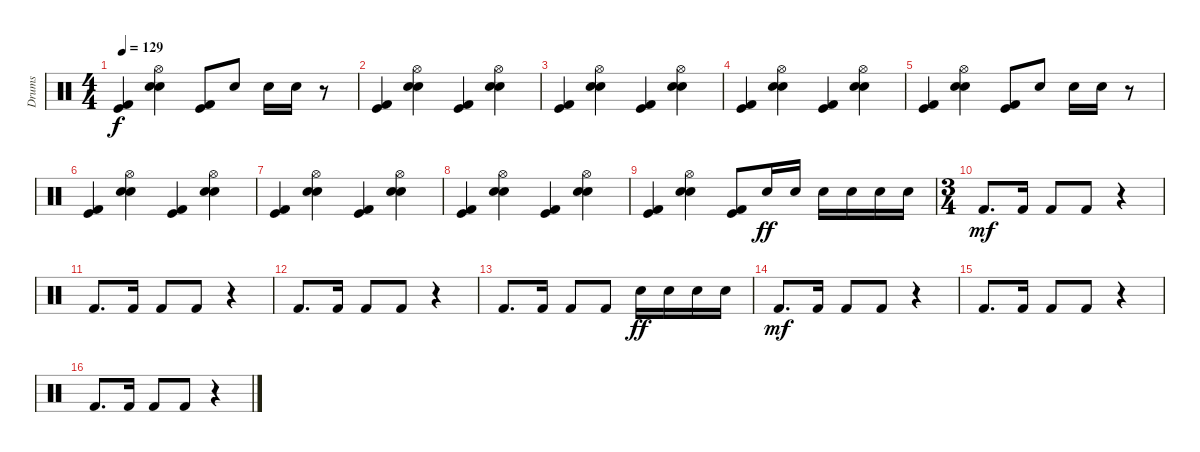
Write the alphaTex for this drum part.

\track ("Drums" "Drums") {instrument percussion}
\staff {score}
\articulation defaults
\ts (4 4)
\tempo 129
\clef neutral
\ks c
("Kick (hit)" "Kick (hit) 2").4{dy f} ("Electric Snare (hit)" "Hi-Hat (open)" "Snare (hit) 2").4 ("Kick (hit)" "Kick (hit) 2").8 "Snare (hit) 2".8 "Snare (hit) 2".16 "Snare (hit) 2".16 r.8 |
("Kick (hit)" "Kick (hit) 2").4 ("Electric Snare (hit)" "Hi-Hat (open)" "Snare (hit) 2").4 ("Kick (hit)" "Kick (hit) 2").4 ("Electric Snare (hit)" "Hi-Hat (open)" "Snare (hit) 2").4 |
("Kick (hit)" "Kick (hit) 2").4 ("Electric Snare (hit)" "Hi-Hat (open)" "Snare (hit) 2").4 ("Kick (hit)" "Kick (hit) 2").4 ("Electric Snare (hit)" "Hi-Hat (open)" "Snare (hit) 2").4 |
("Kick (hit)" "Kick (hit) 2").4 ("Electric Snare (hit)" "Hi-Hat (open)" "Snare (hit) 2").4 ("Kick (hit)" "Kick (hit) 2").4 ("Electric Snare (hit)" "Hi-Hat (open)" "Snare (hit) 2").4 |
("Kick (hit)" "Kick (hit) 2").4 ("Electric Snare (hit)" "Hi-Hat (open)" "Snare (hit) 2").4 ("Kick (hit)" "Kick (hit) 2").8 "Snare (hit) 2".8 "Snare (hit) 2".16 "Snare (hit) 2".16 r.8 |
("Kick (hit)" "Kick (hit) 2").4 ("Electric Snare (hit)" "Hi-Hat (open)" "Snare (hit) 2").4 ("Kick (hit)" "Kick (hit) 2").4 ("Electric Snare (hit)" "Hi-Hat (open)" "Snare (hit) 2").4 |
("Kick (hit)" "Kick (hit) 2").4 ("Electric Snare (hit)" "Hi-Hat (open)" "Snare (hit) 2").4 ("Kick (hit)" "Kick (hit) 2").4 ("Electric Snare (hit)" "Hi-Hat (open)" "Snare (hit) 2").4 |
("Kick (hit)" "Kick (hit) 2").4 ("Electric Snare (hit)" "Hi-Hat (open)" "Snare (hit) 2").4 ("Kick (hit)" "Kick (hit) 2").4 ("Electric Snare (hit)" "Hi-Hat (open)" "Snare (hit) 2").4 |
("Kick (hit)" "Kick (hit) 2").4 ("Electric Snare (hit)" "Hi-Hat (open)" "Snare (hit) 2").4 ("Kick (hit)" "Kick (hit) 2").8 "Snare (hit) 2".16{dy ff} "Snare (hit) 2".16 "Snare (hit) 2".16 "Snare (hit) 2".16 "Snare (hit) 2".16 "Snare (hit) 2".16 |
\ts (3 4)
"Kick (hit) 2".8{d dy mf} "Kick (hit) 2".16 "Kick (hit) 2".8 "Kick (hit) 2".8 r.4 |
"Kick (hit) 2".8{d} "Kick (hit) 2".16 "Kick (hit) 2".8 "Kick (hit) 2".8 r.4 |
"Kick (hit) 2".8{d} "Kick (hit) 2".16 "Kick (hit) 2".8 "Kick (hit) 2".8 r.4 |
"Kick (hit) 2".8{d} "Kick (hit) 2".16 "Kick (hit) 2".8 "Kick (hit) 2".8 "Snare (hit) 2".16{dy ff} "Snare (hit) 2".16 "Snare (hit) 2".16 "Snare (hit) 2".16 |
"Kick (hit) 2".8{d dy mf} "Kick (hit) 2".16 "Kick (hit) 2".8 "Kick (hit) 2".8 r.4 |
"Kick (hit) 2".8{d} "Kick (hit) 2".16 "Kick (hit) 2".8 "Kick (hit) 2".8 r.4 |
"Kick (hit) 2".8{d} "Kick (hit) 2".16 "Kick (hit) 2".8 "Kick (hit) 2".8 r.4
